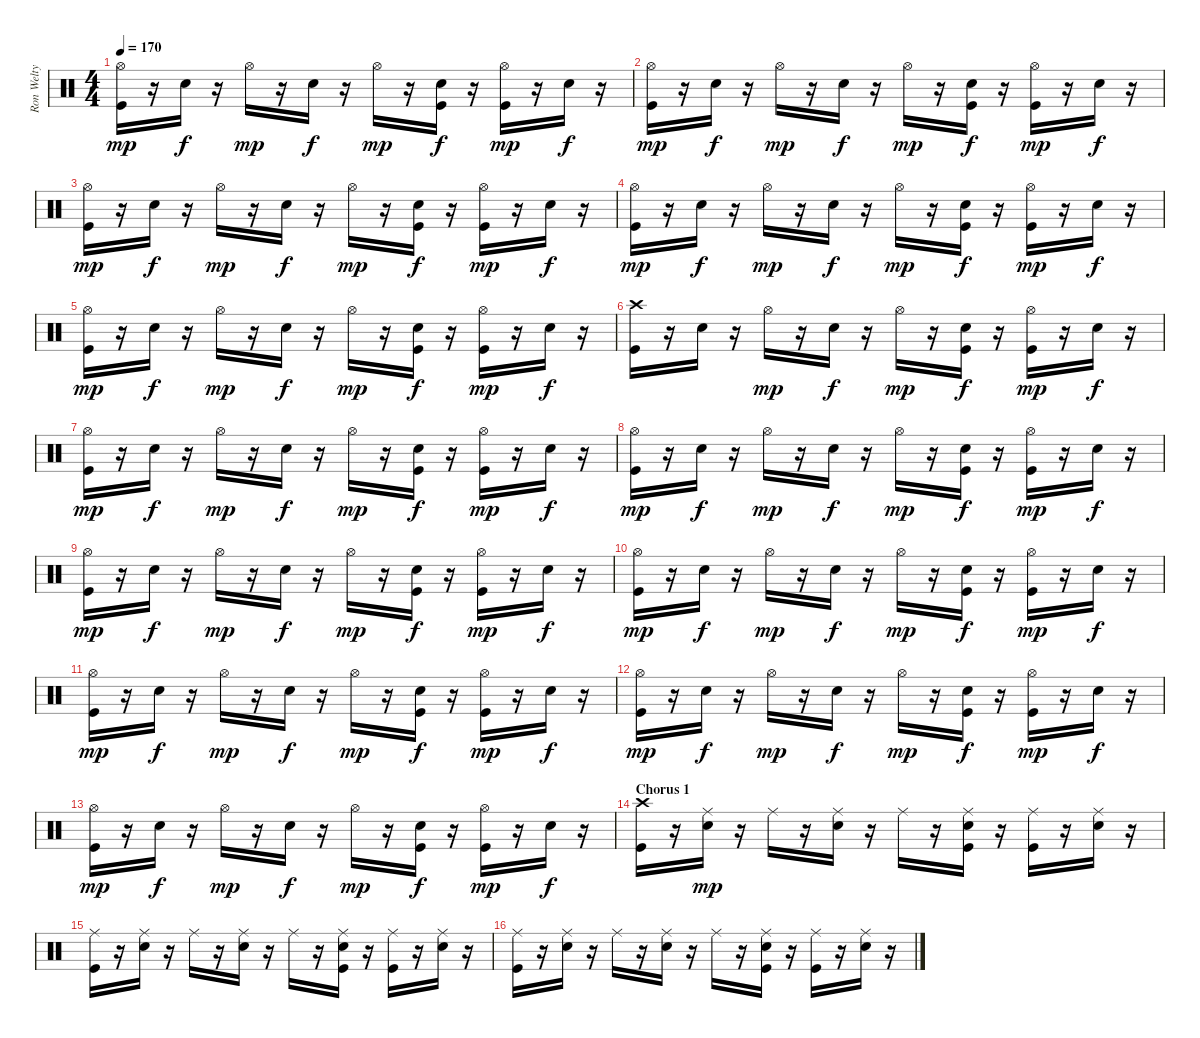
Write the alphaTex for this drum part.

\track ("Ron Welty" "Ron Welty") {instrument percussion}
\staff {score}
\articulation defaults
\ts (4 4)
\tempo 170
\clef neutral
\ks c
("Hi-Hat (open)" "Kick (hit)").16{dy mp} r.16 "Snare (hit) 2".16{dy f} r.16 "Hi-Hat (open)".16{dy mp} r.16 "Snare (hit) 2".16{dy f} r.16 "Hi-Hat (open)".16{dy mp} r.16 ("Snare (hit) 2" "Kick (hit)").16{dy f} r.16 ("Hi-Hat (open)" "Kick (hit)").16{dy mp} r.16 "Snare (hit) 2".16{dy f} r.16 |
("Hi-Hat (open)" "Kick (hit)").16{dy mp} r.16 "Snare (hit) 2".16{dy f} r.16 "Hi-Hat (open)".16{dy mp} r.16 "Snare (hit) 2".16{dy f} r.16 "Hi-Hat (open)".16{dy mp} r.16 ("Snare (hit) 2" "Kick (hit)").16{dy f} r.16 ("Hi-Hat (open)" "Kick (hit)").16{dy mp} r.16 "Snare (hit) 2".16{dy f} r.16 |
("Hi-Hat (open)" "Kick (hit)").16{dy mp} r.16 "Snare (hit) 2".16{dy f} r.16 "Hi-Hat (open)".16{dy mp} r.16 "Snare (hit) 2".16{dy f} r.16 "Hi-Hat (open)".16{dy mp} r.16 ("Snare (hit) 2" "Kick (hit)").16{dy f} r.16 ("Hi-Hat (open)" "Kick (hit)").16{dy mp} r.16 "Snare (hit) 2".16{dy f} r.16 |
("Hi-Hat (open)" "Kick (hit)").16{dy mp} r.16 "Snare (hit) 2".16{dy f} r.16 "Hi-Hat (open)".16{dy mp} r.16 "Snare (hit) 2".16{dy f} r.16 "Hi-Hat (open)".16{dy mp} r.16 ("Snare (hit) 2" "Kick (hit)").16{dy f} r.16 ("Hi-Hat (open)" "Kick (hit)").16{dy mp} r.16 "Snare (hit) 2".16{dy f} r.16 |
("Hi-Hat (open)" "Kick (hit)").16{dy mp} r.16 "Snare (hit) 2".16{dy f} r.16 "Hi-Hat (open)".16{dy mp} r.16 "Snare (hit) 2".16{dy f} r.16 "Hi-Hat (open)".16{dy mp} r.16 ("Snare (hit) 2" "Kick (hit)").16{dy f} r.16 ("Hi-Hat (open)" "Kick (hit)").16{dy mp} r.16 "Snare (hit) 2".16{dy f} r.16 |
("Crash high (hit)" "Kick (hit)").16 r.16 "Snare (hit) 2".16 r.16 "Hi-Hat (open)".16{dy mp} r.16 "Snare (hit) 2".16{dy f} r.16 "Hi-Hat (open)".16{dy mp} r.16 ("Snare (hit) 2" "Kick (hit)").16{dy f} r.16 ("Hi-Hat (open)" "Kick (hit)").16{dy mp} r.16 "Snare (hit) 2".16{dy f} r.16 |
("Hi-Hat (open)" "Kick (hit)").16{dy mp} r.16 "Snare (hit) 2".16{dy f} r.16 "Hi-Hat (open)".16{dy mp} r.16 "Snare (hit) 2".16{dy f} r.16 "Hi-Hat (open)".16{dy mp} r.16 ("Snare (hit) 2" "Kick (hit)").16{dy f} r.16 ("Hi-Hat (open)" "Kick (hit)").16{dy mp} r.16 "Snare (hit) 2".16{dy f} r.16 |
("Hi-Hat (open)" "Kick (hit)").16{dy mp} r.16 "Snare (hit) 2".16{dy f} r.16 "Hi-Hat (open)".16{dy mp} r.16 "Snare (hit) 2".16{dy f} r.16 "Hi-Hat (open)".16{dy mp} r.16 ("Snare (hit) 2" "Kick (hit)").16{dy f} r.16 ("Hi-Hat (open)" "Kick (hit)").16{dy mp} r.16 "Snare (hit) 2".16{dy f} r.16 |
("Hi-Hat (open)" "Kick (hit)").16{dy mp} r.16 "Snare (hit) 2".16{dy f} r.16 "Hi-Hat (open)".16{dy mp} r.16 "Snare (hit) 2".16{dy f} r.16 "Hi-Hat (open)".16{dy mp} r.16 ("Snare (hit) 2" "Kick (hit)").16{dy f} r.16 ("Hi-Hat (open)" "Kick (hit)").16{dy mp} r.16 "Snare (hit) 2".16{dy f} r.16 |
("Hi-Hat (open)" "Kick (hit)").16{dy mp} r.16 "Snare (hit) 2".16{dy f} r.16 "Hi-Hat (open)".16{dy mp} r.16 "Snare (hit) 2".16{dy f} r.16 "Hi-Hat (open)".16{dy mp} r.16 ("Snare (hit) 2" "Kick (hit)").16{dy f} r.16 ("Hi-Hat (open)" "Kick (hit)").16{dy mp} r.16 "Snare (hit) 2".16{dy f} r.16 |
("Hi-Hat (open)" "Kick (hit)").16{dy mp} r.16 "Snare (hit) 2".16{dy f} r.16 "Hi-Hat (open)".16{dy mp} r.16 "Snare (hit) 2".16{dy f} r.16 "Hi-Hat (open)".16{dy mp} r.16 ("Snare (hit) 2" "Kick (hit)").16{dy f} r.16 ("Hi-Hat (open)" "Kick (hit)").16{dy mp} r.16 "Snare (hit) 2".16{dy f} r.16 |
("Hi-Hat (open)" "Kick (hit)").16{dy mp} r.16 "Snare (hit) 2".16{dy f} r.16 "Hi-Hat (open)".16{dy mp} r.16 "Snare (hit) 2".16{dy f} r.16 "Hi-Hat (open)".16{dy mp} r.16 ("Snare (hit) 2" "Kick (hit)").16{dy f} r.16 ("Hi-Hat (open)" "Kick (hit)").16{dy mp} r.16 "Snare (hit) 2".16{dy f} r.16 |
("Hi-Hat (open)" "Kick (hit)").16{dy mp} r.16 "Snare (hit) 2".16{dy f} r.16 "Hi-Hat (open)".16{dy mp} r.16 "Snare (hit) 2".16{dy f} r.16 "Hi-Hat (open)".16{dy mp} r.16 ("Snare (hit) 2" "Kick (hit)").16{dy f} r.16 ("Hi-Hat (open)" "Kick (hit)").16{dy mp} r.16 "Snare (hit) 2".16{dy f} r.16 |
\section ("" "Chorus 1")
("Crash high (hit)" "Kick (hit)").16 r.16 ("Ride (middle)" "Snare (hit) 2").16{dy mp} r.16 "Ride (middle)".16 r.16 ("Ride (middle)" "Snare (hit) 2").16 r.16 "Ride (middle)".16 r.16 ("Ride (middle)" "Snare (hit) 2" "Kick (hit)").16 r.16 ("Ride (middle)" "Kick (hit)").16 r.16 ("Ride (middle)" "Snare (hit) 2").16 r.16 |
("Ride (middle)" "Kick (hit)").16 r.16 ("Ride (middle)" "Snare (hit) 2").16 r.16 "Ride (middle)".16 r.16 ("Ride (middle)" "Snare (hit) 2").16 r.16 "Ride (middle)".16 r.16 ("Ride (middle)" "Snare (hit) 2" "Kick (hit)").16 r.16 ("Ride (middle)" "Kick (hit)").16 r.16 ("Ride (middle)" "Snare (hit) 2").16 r.16 |
("Ride (middle)" "Kick (hit)").16 r.16 ("Ride (middle)" "Snare (hit) 2").16 r.16 "Ride (middle)".16 r.16 ("Ride (middle)" "Snare (hit) 2").16 r.16 "Ride (middle)".16 r.16 ("Ride (middle)" "Snare (hit) 2" "Kick (hit)").16 r.16 ("Ride (middle)" "Kick (hit)").16 r.16 ("Ride (middle)" "Snare (hit) 2").16 r.16
